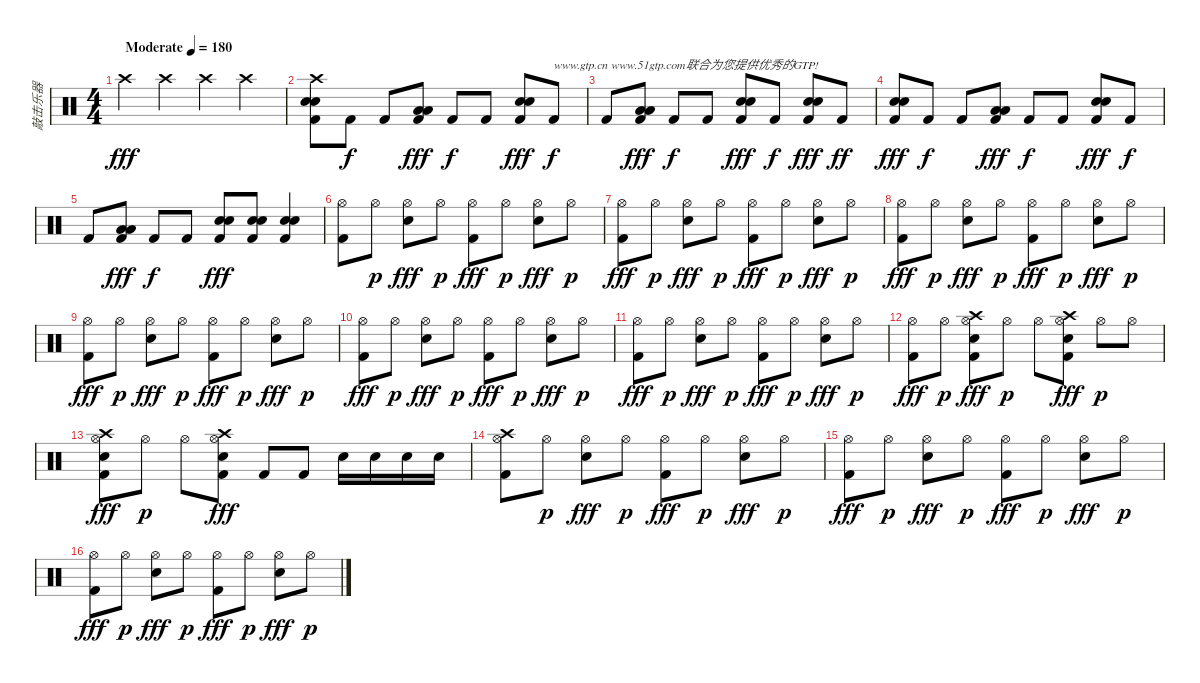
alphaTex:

\track ("敲击乐器" "敲击乐器") {instrument percussion}
\staff {score}
\articulation defaults
\ts (4 4)
\tempo (180 "Moderate")
\clef neutral
\ks c "Crash high (hit)".4{dy fff} "Crash high (hit)".4 "Crash high (hit)".4 "Crash high (hit)".4
|
("Crash high (hit)" "Electric Snare (hit)" "Electric Snare (hit)" "Kick (hit) 2").8 "Kick (hit) 2".8{dy f} "Kick (hit) 2".8 ("Low Tom (hit)" "Low Tom (hit)" "Kick (hit) 2").8{dy fff} "Kick (hit) 2".8{dy f} "Kick (hit) 2".8 ("Electric Snare (hit)" "Electric Snare (hit)" "Kick (hit) 2").8{dy fff} "Kick (hit) 2".8{txt "www.gtp.cn www.51gtp.com联合为您提供优秀的GTP!" dy f} |
"Kick (hit) 2".8 ("Low Tom (hit)" "Low Tom (hit)" "Kick (hit) 2").8{dy fff} "Kick (hit) 2".8{dy f} "Kick (hit) 2".8 ("Electric Snare (hit)" "Electric Snare (hit)" "Kick (hit) 2").8{dy fff} "Kick (hit) 2".8{dy f} ("Electric Snare (hit)" "Electric Snare (hit)" "Kick (hit) 2").8{dy fff} "Kick (hit) 2".8{dy ff} |
("Electric Snare (hit)" "Electric Snare (hit)" "Kick (hit) 2").8{dy fff} "Kick (hit) 2".8{dy f} "Kick (hit) 2".8 ("Low Tom (hit)" "Low Tom (hit)" "Kick (hit) 2").8{dy fff} "Kick (hit) 2".8{dy f} "Kick (hit) 2".8 ("Electric Snare (hit)" "Electric Snare (hit)" "Kick (hit) 2").8{dy fff} "Kick (hit) 2".8{dy f} |
"Kick (hit) 2".8 ("Low Tom (hit)" "Low Tom (hit)" "Kick (hit) 2").8{dy fff} "Kick (hit) 2".8{dy f} "Kick (hit) 2".8 ("Electric Snare (hit)" "Electric Snare (hit)" "Kick (hit) 2").8{dy fff} ("Electric Snare (hit)" "Electric Snare (hit)" "Kick (hit) 2").8 ("Electric Snare (hit)" "Electric Snare (hit)" "Kick (hit) 2").4 |
("Hi-Hat (open)" "Kick (hit) 2").8 "Hi-Hat (open)".8{dy p} ("Hi-Hat (open)" "Electric Snare (hit)").8{dy fff} "Hi-Hat (open)".8{dy p} ("Hi-Hat (open)" "Kick (hit) 2").8{dy fff} "Hi-Hat (open)".8{dy p} ("Hi-Hat (open)" "Electric Snare (hit)").8{dy fff} "Hi-Hat (open)".8{dy p} |
("Hi-Hat (open)" "Kick (hit) 2").8{dy fff} "Hi-Hat (open)".8{dy p} ("Hi-Hat (open)" "Electric Snare (hit)").8{dy fff} "Hi-Hat (open)".8{dy p} ("Hi-Hat (open)" "Kick (hit) 2").8{dy fff} "Hi-Hat (open)".8{dy p} ("Hi-Hat (open)" "Electric Snare (hit)").8{dy fff} "Hi-Hat (open)".8{dy p} |
("Hi-Hat (open)" "Kick (hit) 2").8{dy fff} "Hi-Hat (open)".8{dy p} ("Hi-Hat (open)" "Electric Snare (hit)").8{dy fff} "Hi-Hat (open)".8{dy p} ("Hi-Hat (open)" "Kick (hit) 2").8{dy fff} "Hi-Hat (open)".8{dy p} ("Hi-Hat (open)" "Electric Snare (hit)").8{dy fff} "Hi-Hat (open)".8{dy p} |
("Hi-Hat (open)" "Kick (hit) 2").8{dy fff} "Hi-Hat (open)".8{dy p} ("Hi-Hat (open)" "Electric Snare (hit)").8{dy fff} "Hi-Hat (open)".8{dy p} ("Hi-Hat (open)" "Kick (hit) 2").8{dy fff} "Hi-Hat (open)".8{dy p} ("Hi-Hat (open)" "Electric Snare (hit)").8{dy fff} "Hi-Hat (open)".8{dy p} |
("Hi-Hat (open)" "Kick (hit) 2").8{dy fff} "Hi-Hat (open)".8{dy p} ("Hi-Hat (open)" "Electric Snare (hit)").8{dy fff} "Hi-Hat (open)".8{dy p} ("Hi-Hat (open)" "Kick (hit) 2").8{dy fff} "Hi-Hat (open)".8{dy p} ("Hi-Hat (open)" "Electric Snare (hit)").8{dy fff} "Hi-Hat (open)".8{dy p} |
("Hi-Hat (open)" "Kick (hit) 2").8{dy fff} "Hi-Hat (open)".8{dy p} ("Hi-Hat (open)" "Electric Snare (hit)").8{dy fff} "Hi-Hat (open)".8{dy p} ("Hi-Hat (open)" "Kick (hit) 2").8{dy fff} "Hi-Hat (open)".8{dy p} ("Hi-Hat (open)" "Electric Snare (hit)").8{dy fff} "Hi-Hat (open)".8{dy p} |
("Hi-Hat (open)" "Kick (hit) 2").8{dy fff} "Hi-Hat (open)".8{dy p} ("Crash high (hit)" "Hi-Hat (open)" "Electric Snare (hit)" "Kick (hit) 2").8{dy fff} "Hi-Hat (open)".8{dy p} "Hi-Hat (open)".8 ("Crash high (hit)" "Hi-Hat (open)" "Electric Snare (hit)" "Kick (hit) 2").8{dy fff} "Hi-Hat (open)".8{dy p} "Hi-Hat (open)".8 |
("Crash high (hit)" "Hi-Hat (open)" "Electric Snare (hit)" "Kick (hit) 2").8{dy fff} "Hi-Hat (open)".8{dy p} "Hi-Hat (open)".8 ("Crash high (hit)" "Hi-Hat (open)" "Electric Snare (hit)" "Kick (hit) 2").8{dy fff} "Kick (hit) 2".8 "Kick (hit) 2".8 "Electric Snare (hit)".16 "Electric Snare (hit)".16 "Electric Snare (hit)".16 "Electric Snare (hit)".16 |
("Crash high (hit)" "Hi-Hat (open)" "Kick (hit) 2").8 "Hi-Hat (open)".8{dy p} ("Hi-Hat (open)" "Electric Snare (hit)").8{dy fff} "Hi-Hat (open)".8{dy p} ("Hi-Hat (open)" "Kick (hit) 2").8{dy fff} "Hi-Hat (open)".8{dy p} ("Hi-Hat (open)" "Electric Snare (hit)").8{dy fff} "Hi-Hat (open)".8{dy p} |
("Hi-Hat (open)" "Kick (hit) 2").8{dy fff} "Hi-Hat (open)".8{dy p} ("Hi-Hat (open)" "Electric Snare (hit)").8{dy fff} "Hi-Hat (open)".8{dy p} ("Hi-Hat (open)" "Kick (hit) 2").8{dy fff} "Hi-Hat (open)".8{dy p} ("Hi-Hat (open)" "Electric Snare (hit)").8{dy fff} "Hi-Hat (open)".8{dy p} |
("Hi-Hat (open)" "Kick (hit) 2").8{dy fff} "Hi-Hat (open)".8{dy p} ("Hi-Hat (open)" "Electric Snare (hit)").8{dy fff} "Hi-Hat (open)".8{dy p} ("Hi-Hat (open)" "Kick (hit) 2").8{dy fff} "Hi-Hat (open)".8{dy p} ("Hi-Hat (open)" "Electric Snare (hit)").8{dy fff} "Hi-Hat (open)".8{dy p}
